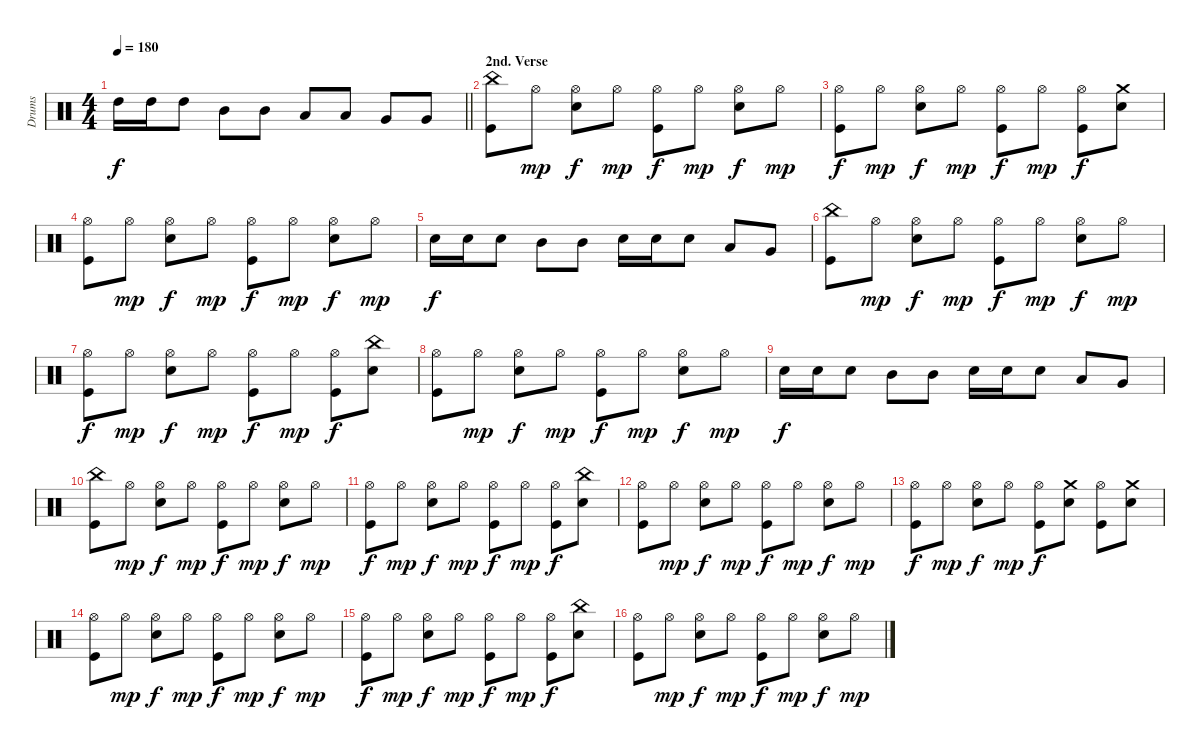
\track ("Drums" "Drums") {instrument percussion}
\staff {score}
\articulation defaults
\ts (4 4)
\tempo 180
\clef neutral
\barLineRight lightlight
\ks c "High Tom (hit)".16{dy f} "High Tom (hit)".16 "High Tom (hit)".8 "Mid Tom (hit)".8 "Mid Tom (hit)".8 "Low Tom (hit)".8 "Low Tom (hit)".8 "Very Low Tom (hit)".8 "Very Low Tom (hit)".8
|
\section ("" "2nd. Verse")
("China (hit)" "Kick (hit)").8 "Hi-Hat (open)".8{dy mp} ("Hi-Hat (open)" "Electric Snare (hit)").8{dy f} "Hi-Hat (open)".8{dy mp} ("Hi-Hat (open)" "Kick (hit)").8{dy f} "Hi-Hat (open)".8{dy mp} ("Hi-Hat (open)" "Electric Snare (hit)").8{dy f} "Hi-Hat (open)".8{dy mp} |
("Hi-Hat (open)" "Kick (hit)").8{dy f} "Hi-Hat (open)".8{dy mp} ("Hi-Hat (open)" "Electric Snare (hit)").8{dy f} "Hi-Hat (open)".8{dy mp} ("Hi-Hat (open)" "Kick (hit)").8{dy f} "Hi-Hat (open)".8{dy mp} ("Hi-Hat (open)" "Kick (hit)").8{dy f} ("Crash medium (hit)" "Electric Snare (hit)").8 |
("Hi-Hat (open)" "Kick (hit)").8 "Hi-Hat (open)".8{dy mp} ("Hi-Hat (open)" "Electric Snare (hit)").8{dy f} "Hi-Hat (open)".8{dy mp} ("Hi-Hat (open)" "Kick (hit)").8{dy f} "Hi-Hat (open)".8{dy mp} ("Hi-Hat (open)" "Electric Snare (hit)").8{dy f} "Hi-Hat (open)".8{dy mp} |
"Electric Snare (hit)".16{dy f} "Electric Snare (hit)".16 "Electric Snare (hit)".8 "Mid Tom (hit)".8 "Mid Tom (hit)".8 "Electric Snare (hit)".16 "Electric Snare (hit)".16 "Electric Snare (hit)".8 "Low Tom (hit)".8 "Very Low Tom (hit)".8 |
("China (hit)" "Kick (hit)").8 "Hi-Hat (open)".8{dy mp} ("Hi-Hat (open)" "Electric Snare (hit)").8{dy f} "Hi-Hat (open)".8{dy mp} ("Hi-Hat (open)" "Kick (hit)").8{dy f} "Hi-Hat (open)".8{dy mp} ("Hi-Hat (open)" "Electric Snare (hit)").8{dy f} "Hi-Hat (open)".8{dy mp} |
("Hi-Hat (open)" "Kick (hit)").8{dy f} "Hi-Hat (open)".8{dy mp} ("Hi-Hat (open)" "Electric Snare (hit)").8{dy f} "Hi-Hat (open)".8{dy mp} ("Hi-Hat (open)" "Kick (hit)").8{dy f} "Hi-Hat (open)".8{dy mp} ("Hi-Hat (open)" "Kick (hit)").8{dy f} ("China (hit)" "Electric Snare (hit)").8 |
("Hi-Hat (open)" "Kick (hit)").8 "Hi-Hat (open)".8{dy mp} ("Hi-Hat (open)" "Electric Snare (hit)").8{dy f} "Hi-Hat (open)".8{dy mp} ("Hi-Hat (open)" "Kick (hit)").8{dy f} "Hi-Hat (open)".8{dy mp} ("Hi-Hat (open)" "Electric Snare (hit)").8{dy f} "Hi-Hat (open)".8{dy mp} |
"Electric Snare (hit)".16{dy f} "Electric Snare (hit)".16 "Electric Snare (hit)".8 "Mid Tom (hit)".8 "Mid Tom (hit)".8 "Electric Snare (hit)".16 "Electric Snare (hit)".16 "Electric Snare (hit)".8 "Low Tom (hit)".8 "Very Low Tom (hit)".8 |
("China (hit)" "Kick (hit)").8 "Hi-Hat (open)".8{dy mp} ("Hi-Hat (open)" "Electric Snare (hit)").8{dy f} "Hi-Hat (open)".8{dy mp} ("Hi-Hat (open)" "Kick (hit)").8{dy f} "Hi-Hat (open)".8{dy mp} ("Hi-Hat (open)" "Electric Snare (hit)").8{dy f} "Hi-Hat (open)".8{dy mp} |
("Hi-Hat (open)" "Kick (hit)").8{dy f} "Hi-Hat (open)".8{dy mp} ("Hi-Hat (open)" "Electric Snare (hit)").8{dy f} "Hi-Hat (open)".8{dy mp} ("Hi-Hat (open)" "Kick (hit)").8{dy f} "Hi-Hat (open)".8{dy mp} ("Hi-Hat (open)" "Kick (hit)").8{dy f} ("China (hit)" "Electric Snare (hit)").8 |
("Hi-Hat (open)" "Kick (hit)").8 "Hi-Hat (open)".8{dy mp} ("Hi-Hat (open)" "Electric Snare (hit)").8{dy f} "Hi-Hat (open)".8{dy mp} ("Hi-Hat (open)" "Kick (hit)").8{dy f} "Hi-Hat (open)".8{dy mp} ("Hi-Hat (open)" "Electric Snare (hit)").8{dy f} "Hi-Hat (open)".8{dy mp} |
("Hi-Hat (open)" "Kick (hit)").8{dy f} "Hi-Hat (open)".8{dy mp} ("Hi-Hat (open)" "Electric Snare (hit)").8{dy f} "Hi-Hat (open)".8{dy mp} ("Hi-Hat (open)" "Kick (hit)").8{dy f} ("Crash medium (hit)" "Electric Snare (hit)").8 ("Hi-Hat (open)" "Kick (hit)").8 ("Crash medium (hit)" "Electric Snare (hit)").8 |
("Hi-Hat (open)" "Kick (hit)").8 "Hi-Hat (open)".8{dy mp} ("Hi-Hat (open)" "Electric Snare (hit)").8{dy f} "Hi-Hat (open)".8{dy mp} ("Hi-Hat (open)" "Kick (hit)").8{dy f} "Hi-Hat (open)".8{dy mp} ("Hi-Hat (open)" "Electric Snare (hit)").8{dy f} "Hi-Hat (open)".8{dy mp} |
("Hi-Hat (open)" "Kick (hit)").8{dy f} "Hi-Hat (open)".8{dy mp} ("Hi-Hat (open)" "Electric Snare (hit)").8{dy f} "Hi-Hat (open)".8{dy mp} ("Hi-Hat (open)" "Kick (hit)").8{dy f} "Hi-Hat (open)".8{dy mp} ("Hi-Hat (open)" "Kick (hit)").8{dy f} ("China (hit)" "Electric Snare (hit)").8 |
("Hi-Hat (open)" "Kick (hit)").8 "Hi-Hat (open)".8{dy mp} ("Hi-Hat (open)" "Electric Snare (hit)").8{dy f} "Hi-Hat (open)".8{dy mp} ("Hi-Hat (open)" "Kick (hit)").8{dy f} "Hi-Hat (open)".8{dy mp} ("Hi-Hat (open)" "Electric Snare (hit)").8{dy f} "Hi-Hat (open)".8{dy mp}
